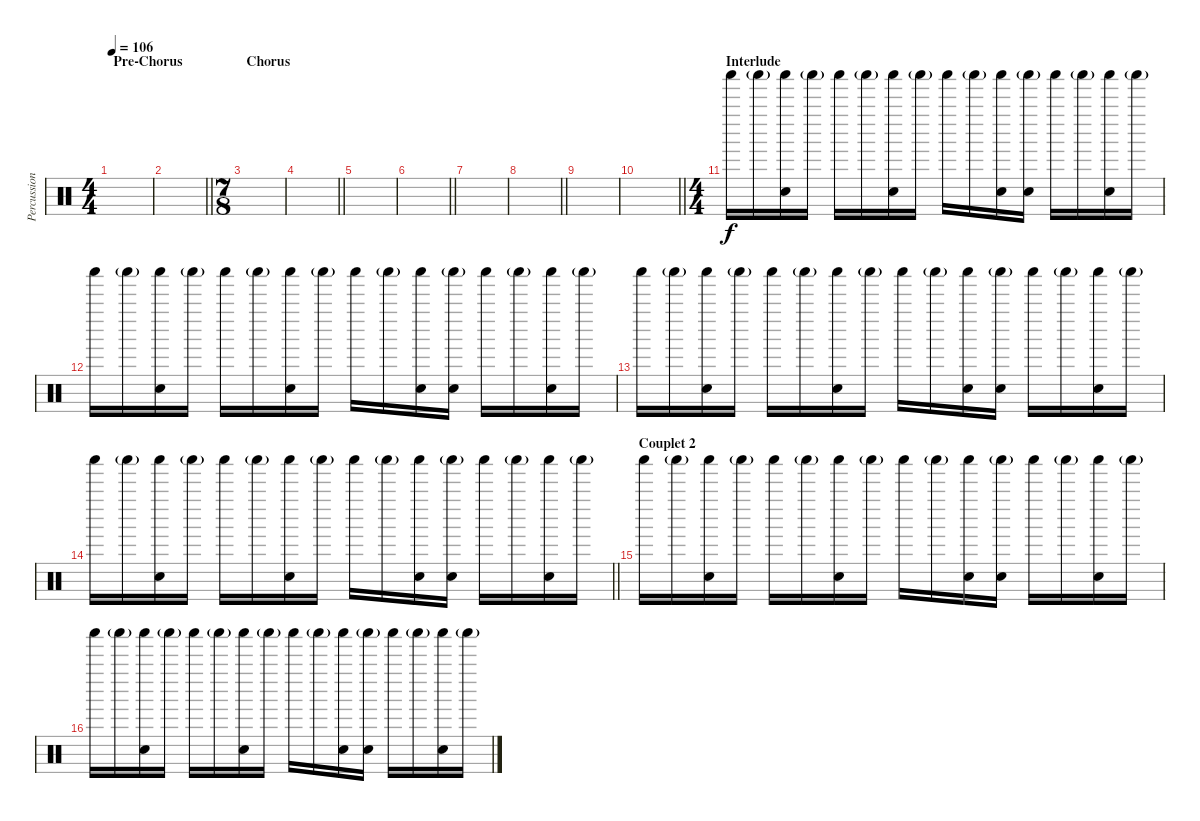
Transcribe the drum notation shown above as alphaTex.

\track ("Percussion 1" "Percussion") {instrument percussion}
\staff {score}
\articulation defaults
\ts (4 4)
\section ("" "Pre-Chorus")
\tempo 106
\clef neutral
\ks c
|
\barLineRight lightlight
|
\ts (7 8)
\section ("" "Chorus")
|
\barLineRight lightlight
|
|
\barLineRight lightlight
|
|
\barLineRight lightlight
|
|
\barLineRight lightlight
|
\ts (4 4)
\section ("" "Interlude")
"Shaker (hit)".16 "Shaker (hit)"{g}.16 ("Shaker (hit)" "Hand Clap (hit)").16 "Shaker (hit)"{g}.16 "Shaker (hit)".16 "Shaker (hit)"{g}.16 ("Shaker (hit)" "Hand Clap (hit)").16 "Shaker (hit)"{g}.16 "Shaker (hit)".16 "Shaker (hit)"{g}.16 ("Shaker (hit)" "Hand Clap (hit)").16 ("Shaker (hit)"{g} "Hand Clap (hit)").16 "Shaker (hit)".16 "Shaker (hit)"{g}.16 ("Shaker (hit)" "Hand Clap (hit)").16 "Shaker (hit)"{g}.16 |
"Shaker (hit)".16 "Shaker (hit)"{g}.16 ("Shaker (hit)" "Hand Clap (hit)").16 "Shaker (hit)"{g}.16 "Shaker (hit)".16 "Shaker (hit)"{g}.16 ("Shaker (hit)" "Hand Clap (hit)").16 "Shaker (hit)"{g}.16 "Shaker (hit)".16 "Shaker (hit)"{g}.16 ("Shaker (hit)" "Hand Clap (hit)").16 ("Shaker (hit)"{g} "Hand Clap (hit)").16 "Shaker (hit)".16 "Shaker (hit)"{g}.16 ("Shaker (hit)" "Hand Clap (hit)").16 "Shaker (hit)"{g}.16 |
"Shaker (hit)".16 "Shaker (hit)"{g}.16 ("Shaker (hit)" "Hand Clap (hit)").16 "Shaker (hit)"{g}.16 "Shaker (hit)".16 "Shaker (hit)"{g}.16 ("Shaker (hit)" "Hand Clap (hit)").16 "Shaker (hit)"{g}.16 "Shaker (hit)".16 "Shaker (hit)"{g}.16 ("Shaker (hit)" "Hand Clap (hit)").16 ("Shaker (hit)"{g} "Hand Clap (hit)").16 "Shaker (hit)".16 "Shaker (hit)"{g}.16 ("Shaker (hit)" "Hand Clap (hit)").16 "Shaker (hit)"{g}.16 |
\barLineRight lightlight "Shaker (hit)".16 "Shaker (hit)"{g}.16
("Shaker (hit)" "Hand Clap (hit)").16 "Shaker (hit)"{g}.16 "Shaker (hit)".16 "Shaker (hit)"{g}.16 ("Shaker (hit)" "Hand Clap (hit)").16 "Shaker (hit)"{g}.16 "Shaker (hit)".16 "Shaker (hit)"{g}.16 ("Shaker (hit)" "Hand Clap (hit)").16 ("Shaker (hit)"{g} "Hand Clap (hit)").16 "Shaker (hit)".16 "Shaker (hit)"{g}.16 ("Shaker (hit)" "Hand Clap (hit)").16 "Shaker (hit)"{g}.16 |
\section ("" "Couplet 2")
"Shaker (hit)".16 "Shaker (hit)"{g}.16 ("Shaker (hit)" "Hand Clap (hit)").16 "Shaker (hit)"{g}.16 "Shaker (hit)".16 "Shaker (hit)"{g}.16 ("Shaker (hit)" "Hand Clap (hit)").16 "Shaker (hit)"{g}.16 "Shaker (hit)".16 "Shaker (hit)"{g}.16 ("Shaker (hit)" "Hand Clap (hit)").16 ("Shaker (hit)"{g} "Hand Clap (hit)").16 "Shaker (hit)".16 "Shaker (hit)"{g}.16 ("Shaker (hit)" "Hand Clap (hit)").16 "Shaker (hit)"{g}.16 |
"Shaker (hit)".16 "Shaker (hit)"{g}.16 ("Shaker (hit)" "Hand Clap (hit)").16 "Shaker (hit)"{g}.16 "Shaker (hit)".16 "Shaker (hit)"{g}.16 ("Shaker (hit)" "Hand Clap (hit)").16 "Shaker (hit)"{g}.16 "Shaker (hit)".16 "Shaker (hit)"{g}.16 ("Shaker (hit)" "Hand Clap (hit)").16 ("Shaker (hit)"{g} "Hand Clap (hit)").16 "Shaker (hit)".16 "Shaker (hit)"{g}.16 ("Shaker (hit)" "Hand Clap (hit)").16 "Shaker (hit)"{g}.16
